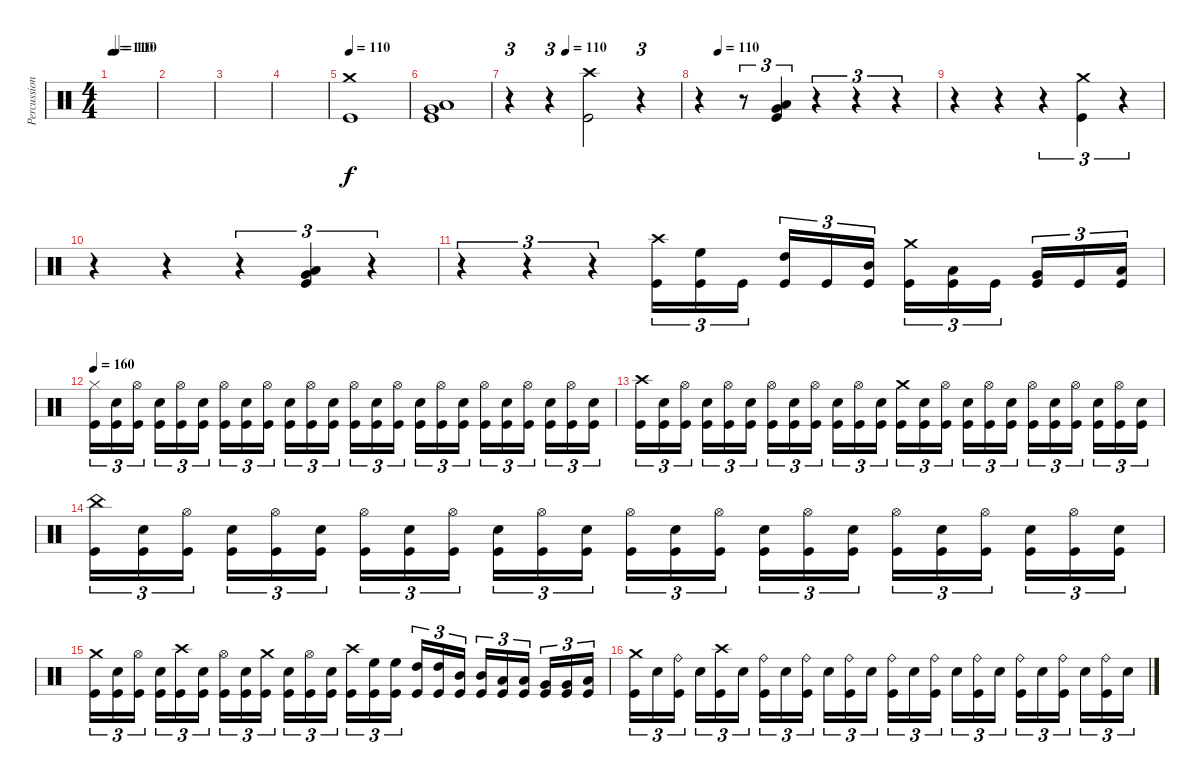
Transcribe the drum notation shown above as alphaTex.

\track ("Percussion" "Percussion") {instrument percussion}
\staff {score}
\articulation defaults
\ts (4 4)
\tempo 110
\tempo (110 0.08333333333333333)
\clef neutral
\ks c
|
|
|
|
\tempo 110
("Crash medium (hit)" "Kick (hit)").1 |
("Very Low Tom (hit)" "Low Floor Tom (hit)" "Kick (hit)").1 |
\tempo (110 0.3333333333333333)
r.4{tu (3 2)} r.4{tu (3 2)} ("Crash high (hit)" "Kick (hit)").2 r.4{tu (3 2)} |
\tempo (110 0.08333333333333333)
r.4 r.8{tu (3 2)} ("Low Floor Tom (hit)" "Very Low Tom (hit)" "Kick (hit)").4{tu (3 2)} r.4{tu (3 2)} r.4{tu (3 2)} r.4{tu (3 2)} |
r.4 r.4 r.4{tu (3 2)} ("Crash medium (hit)" "Kick (hit)").4{tu (3 2)} r.4{tu (3 2)} |
r.4 r.4 r.4{tu (3 2)} ("Low Floor Tom (hit)" "Very Low Tom (hit)" "Kick (hit)").4{tu (3 2)} r.4{tu (3 2)} |
r.4{tu (3 2)} r.4{tu (3 2)} r.4{tu (3 2)} ("Crash high (hit)" "Kick (hit)").16{tu (3 2)} ("High Floor Tom (hit)" "Kick (hit)").16{tu (3 2)} "Kick (hit)".16{tu (3 2) beam splitsecondary} ("High Tom (hit)" "Kick (hit)").16{tu (3 2)} "Kick (hit)".16{tu (3 2)} ("Mid Tom (hit)" "Kick (hit)").16{tu (3 2)} ("Crash medium (hit)" "Kick (hit)").16{tu (3 2)} ("Low Tom (hit)" "Kick (hit)").16{tu (3 2)} "Kick (hit)".16{tu (3 2) beam splitsecondary} ("Very Low Tom (hit)" "Kick (hit)").16{tu (3 2)} "Kick (hit)".16{tu (3 2)} ("Low Floor Tom (hit)" "Kick (hit)").16{tu (3 2)} |
\tempo 160
("Hi-Hat (closed)" "Kick (hit)").16{tu (3 2)} ("Snare (hit) 2" "Kick (hit)").16{tu (3 2)} ("Hi-Hat (open)" "Kick (hit)").16{tu (3 2) beam splitsecondary} ("Snare (hit) 2" "Kick (hit)").16{tu (3 2)} ("Hi-Hat (open)" "Kick (hit)").16{tu (3 2)} ("Snare (hit) 2" "Kick (hit)").16{tu (3 2)} ("Hi-Hat (open)" "Kick (hit)").16{tu (3 2)} ("Snare (hit) 2" "Kick (hit)").16{tu (3 2)} ("Hi-Hat (open)" "Kick (hit)").16{tu (3 2) beam splitsecondary} ("Snare (hit) 2" "Kick (hit)").16{tu (3 2)} ("Hi-Hat (open)" "Kick (hit)").16{tu (3 2)} ("Snare (hit) 2" "Kick (hit)").16{tu (3 2)} ("Hi-Hat (open)" "Kick (hit)").16{tu (3 2)} ("Snare (hit) 2" "Kick (hit)").16{tu (3 2)} ("Hi-Hat (open)" "Kick (hit)").16{tu (3 2) beam splitsecondary} ("Snare (hit) 2" "Kick (hit)").16{tu (3 2)} ("Hi-Hat (open)" "Kick (hit)").16{tu (3 2)} ("Snare (hit) 2" "Kick (hit)").16{tu (3 2)} ("Hi-Hat (open)" "Kick (hit)").16{tu (3 2)} ("Snare (hit) 2" "Kick (hit)").16{tu (3 2)} ("Hi-Hat (open)" "Kick (hit)").16{tu (3 2) beam splitsecondary} ("Snare (hit) 2" "Kick (hit)").16{tu (3 2)} ("Hi-Hat (open)" "Kick (hit)").16{tu (3 2)} ("Snare (hit) 2" "Kick (hit)").16{tu (3 2)} |
("Crash high (hit)" "Kick (hit)").16{tu (3 2)} ("Snare (hit) 2" "Kick (hit)").16{tu (3 2)} ("Hi-Hat (open)" "Kick (hit)").16{tu (3 2) beam splitsecondary} ("Snare (hit) 2" "Kick (hit)").16{tu (3 2)} ("Hi-Hat (open)" "Kick (hit)").16{tu (3 2)} ("Snare (hit) 2" "Kick (hit)").16{tu (3 2)} ("Hi-Hat (open)" "Kick (hit)").16{tu (3 2)} ("Snare (hit) 2" "Kick (hit)").16{tu (3 2)} ("Hi-Hat (open)" "Kick (hit)").16{tu (3 2) beam splitsecondary} ("Snare (hit) 2" "Kick (hit)").16{tu (3 2)} ("Hi-Hat (open)" "Kick (hit)").16{tu (3 2)} ("Snare (hit) 2" "Kick (hit)").16{tu (3 2)} ("Crash medium (hit)" "Kick (hit)").16{tu (3 2)} ("Snare (hit) 2" "Kick (hit)").16{tu (3 2)} ("Hi-Hat (open)" "Kick (hit)").16{tu (3 2) beam splitsecondary} ("Snare (hit) 2" "Kick (hit)").16{tu (3 2)} ("Hi-Hat (open)" "Kick (hit)").16{tu (3 2)} ("Snare (hit) 2" "Kick (hit)").16{tu (3 2)} ("Hi-Hat (open)" "Kick (hit)").16{tu (3 2)} ("Snare (hit) 2" "Kick (hit)").16{tu (3 2)} ("Hi-Hat (open)" "Kick (hit)").16{tu (3 2) beam splitsecondary} ("Snare (hit) 2" "Kick (hit)").16{tu (3 2)} ("Hi-Hat (open)" "Kick (hit)").16{tu (3 2)} ("Snare (hit) 2" "Kick (hit)").16{tu (3 2)} |
("China (hit)" "Kick (hit)").16{tu (3 2)} ("Snare (hit) 2" "Kick (hit)").16{tu (3 2)} ("Hi-Hat (open)" "Kick (hit)").16{tu (3 2) beam splitsecondary} ("Snare (hit) 2" "Kick (hit)").16{tu (3 2)} ("Hi-Hat (open)" "Kick (hit)").16{tu (3 2)} ("Snare (hit) 2" "Kick (hit)").16{tu (3 2)} ("Hi-Hat (open)" "Kick (hit)").16{tu (3 2)} ("Snare (hit) 2" "Kick (hit)").16{tu (3 2)} ("Hi-Hat (open)" "Kick (hit)").16{tu (3 2) beam splitsecondary} ("Snare (hit) 2" "Kick (hit)").16{tu (3 2)} ("Hi-Hat (open)" "Kick (hit)").16{tu (3 2)} ("Snare (hit) 2" "Kick (hit)").16{tu (3 2)} ("Hi-Hat (open)" "Kick (hit)").16{tu (3 2)} ("Snare (hit) 2" "Kick (hit)").16{tu (3 2)} ("Hi-Hat (open)" "Kick (hit)").16{tu (3 2) beam splitsecondary} ("Snare (hit) 2" "Kick (hit)").16{tu (3 2)} ("Hi-Hat (open)" "Kick (hit)").16{tu (3 2)} ("Snare (hit) 2" "Kick (hit)").16{tu (3 2)} ("Hi-Hat (open)" "Kick (hit)").16{tu (3 2)} ("Snare (hit) 2" "Kick (hit)").16{tu (3 2)} ("Hi-Hat (open)" "Kick (hit)").16{tu (3 2) beam splitsecondary} ("Snare (hit) 2" "Kick (hit)").16{tu (3 2)} ("Hi-Hat (open)" "Kick (hit)").16{tu (3 2)} ("Snare (hit) 2" "Kick (hit)").16{tu (3 2)} |
("Crash medium (hit)" "Kick (hit)").16{tu (3 2)} ("Snare (hit) 2" "Kick (hit)").16{tu (3 2)} ("Hi-Hat (open)" "Kick (hit)").16{tu (3 2) beam splitsecondary} ("Snare (hit) 2" "Kick (hit)").16{tu (3 2)} ("Crash high (hit)" "Kick (hit)").16{tu (3 2)} ("Snare (hit) 2" "Kick (hit)").16{tu (3 2)} ("Hi-Hat (open)" "Kick (hit)").16{tu (3 2)} ("Snare (hit) 2" "Kick (hit)").16{tu (3 2)} ("Crash medium (hit)" "Kick (hit)").16{tu (3 2) beam splitsecondary} ("Snare (hit) 2" "Kick (hit)").16{tu (3 2)} ("Hi-Hat (open)" "Kick (hit)").16{tu (3 2)} ("Snare (hit) 2" "Kick (hit)").16{tu (3 2)} ("Crash high (hit)" "Kick (hit)").16{tu (3 2)} ("High Floor Tom (hit)" "Kick (hit)").16{tu (3 2)} ("High Floor Tom (hit)" "Kick (hit)").16{tu (3 2) beam splitsecondary} ("High Tom (hit)" "Kick (hit)").16{tu (3 2)} ("High Tom (hit)" "Kick (hit)").16{tu (3 2)} ("Mid Tom (hit)" "Kick (hit)").16{tu (3 2)} ("Mid Tom (hit)" "Kick (hit)").16{tu (3 2)} ("Low Tom (hit)" "Kick (hit)").16{tu (3 2)} ("Low Tom (hit)" "Kick (hit)").16{tu (3 2) beam splitsecondary} ("Very Low Tom (hit)" "Kick (hit)").16{tu (3 2)} ("Very Low Tom (hit)" "Kick (hit)").16{tu (3 2)} ("Low Floor Tom (hit)" "Kick (hit)").16{tu (3 2)} |
("Crash medium (hit)" "Kick (hit)").16{tu (3 2)} "Snare (hit) 2".16{tu (3 2)} ("Ride (bell)" "Kick (hit)").16{tu (3 2) beam splitsecondary} "Snare (hit) 2".16{tu (3 2)} ("Crash high (hit)" "Kick (hit)").16{tu (3 2)} "Snare (hit) 2".16{tu (3 2)} ("Ride (bell)" "Kick (hit)").16{tu (3 2)} "Snare (hit) 2".16{tu (3 2)} ("Ride (bell)" "Kick (hit)").16{tu (3 2) beam splitsecondary} "Snare (hit) 2".16{tu (3 2)} ("Ride (bell)" "Kick (hit)").16{tu (3 2)} "Snare (hit) 2".16{tu (3 2)} ("Ride (bell)" "Kick (hit)").16{tu (3 2)} "Snare (hit) 2".16{tu (3 2)} ("Ride (bell)" "Kick (hit)").16{tu (3 2) beam splitsecondary} "Snare (hit) 2".16{tu (3 2)} ("Ride (bell)" "Kick (hit)").16{tu (3 2)} "Snare (hit) 2".16{tu (3 2)} ("Ride (bell)" "Kick (hit)").16{tu (3 2)} "Snare (hit) 2".16{tu (3 2)} ("Ride (bell)" "Kick (hit)").16{tu (3 2) beam splitsecondary} "Snare (hit) 2".16{tu (3 2)} ("Ride (bell)" "Kick (hit)").16{tu (3 2)} "Snare (hit) 2".16{tu (3 2)}
